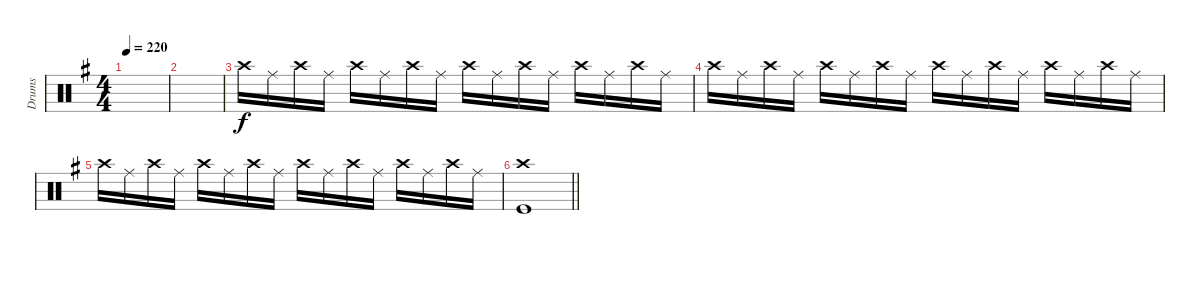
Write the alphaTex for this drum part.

\track ("Drums" "Drums") {instrument percussion}
\staff {score}
\articulation defaults
\ts (4 4)
\tempo 220
\clef neutral
\ks g
|
|
"Crash high (hit)".16 "Ride (middle)".16 "Crash high (hit)".16 "Ride (middle)".16 "Crash high (hit)".16 "Ride (middle)".16 "Crash high (hit)".16 "Ride (middle)".16 "Crash high (hit)".16 "Ride (middle)".16 "Crash high (hit)".16 "Ride (middle)".16 "Crash high (hit)".16 "Ride (middle)".16 "Crash high (hit)".16 "Ride (middle)".16 |
"Crash high (hit)".16 "Ride (middle)".16 "Crash high (hit)".16 "Ride (middle)".16 "Crash high (hit)".16 "Ride (middle)".16 "Crash high (hit)".16 "Ride (middle)".16 "Crash high (hit)".16 "Ride (middle)".16 "Crash high (hit)".16 "Ride (middle)".16 "Crash high (hit)".16 "Ride (middle)".16 "Crash high (hit)".16 "Ride (middle)".16 |
"Crash high (hit)".16 "Ride (middle)".16 "Crash high (hit)".16 "Ride (middle)".16 "Crash high (hit)".16 "Ride (middle)".16 "Crash high (hit)".16 "Ride (middle)".16 "Crash high (hit)".16 "Ride (middle)".16 "Crash high (hit)".16 "Ride (middle)".16 "Crash high (hit)".16 "Ride (middle)".16 "Crash high (hit)".16 "Ride (middle)".16 |
\barLineRight lightlight
("Crash high (hit)" "Kick (hit)").1
